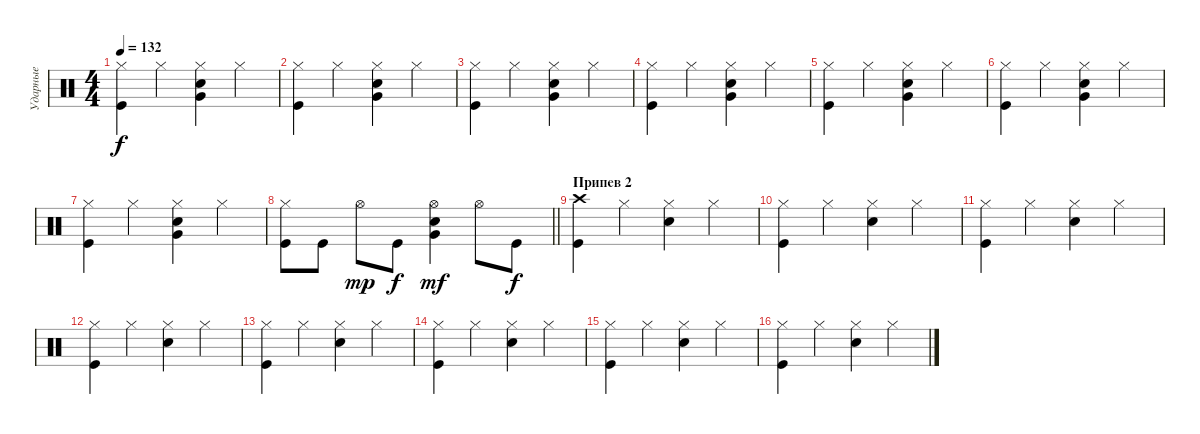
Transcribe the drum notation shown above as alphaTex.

\track ("Ударные" "Ударные") {instrument percussion}
\staff {score}
\articulation defaults
\ts (4 4)
\tempo 132
\clef neutral
\ks c
("Hi-Hat (closed)" "Kick (hit)").4{dy f} "Hi-Hat (closed)".4 ("Hi-Hat (closed)" "Snare (hit) 2" "Very Low Tom (hit)").4 "Hi-Hat (closed)".4 |
("Hi-Hat (closed)" "Kick (hit)").4 "Hi-Hat (closed)".4 ("Hi-Hat (closed)" "Snare (hit) 2" "Very Low Tom (hit)").4 "Hi-Hat (closed)".4 |
("Hi-Hat (closed)" "Kick (hit)").4 "Hi-Hat (closed)".4 ("Hi-Hat (closed)" "Snare (hit) 2" "Very Low Tom (hit)").4 "Hi-Hat (closed)".4 |
("Hi-Hat (closed)" "Kick (hit)").4 "Hi-Hat (closed)".4 ("Hi-Hat (closed)" "Snare (hit) 2" "Very Low Tom (hit)").4 "Hi-Hat (closed)".4 |
("Hi-Hat (closed)" "Kick (hit)").4 "Hi-Hat (closed)".4 ("Hi-Hat (closed)" "Snare (hit) 2" "Very Low Tom (hit)").4 "Hi-Hat (closed)".4 |
("Hi-Hat (closed)" "Kick (hit)").4 "Hi-Hat (closed)".4 ("Hi-Hat (closed)" "Snare (hit) 2" "Very Low Tom (hit)").4 "Hi-Hat (closed)".4 |
("Hi-Hat (closed)" "Kick (hit)").4 "Hi-Hat (closed)".4 ("Hi-Hat (closed)" "Snare (hit) 2" "Very Low Tom (hit)").4 "Hi-Hat (closed)".4 |
\barLineRight lightlight
("Hi-Hat (closed)" "Kick (hit)").8 "Kick (hit)".8 "Hi-Hat (open)".8{dy mp} "Kick (hit)".8{dy f} ("Hi-Hat (open)" "Snare (hit) 2" "Very Low Tom (hit)").4{dy mf} "Hi-Hat (open)".8 "Kick (hit)".8{dy f} |
\section ("" "Припев 2")
("Crash high (hit)" "Kick (hit)").4 "Hi-Hat (closed)".4 ("Hi-Hat (closed)" "Snare (hit) 2").4 "Hi-Hat (closed)".4 |
("Hi-Hat (closed)" "Kick (hit)").4 "Hi-Hat (closed)".4 ("Hi-Hat (closed)" "Snare (hit) 2").4 "Hi-Hat (closed)".4 |
("Hi-Hat (closed)" "Kick (hit)").4 "Hi-Hat (closed)".4 ("Hi-Hat (closed)" "Snare (hit) 2").4 "Hi-Hat (closed)".4 |
("Hi-Hat (closed)" "Kick (hit)").4 "Hi-Hat (closed)".4 ("Hi-Hat (closed)" "Snare (hit) 2").4 "Hi-Hat (closed)".4 |
("Hi-Hat (closed)" "Kick (hit)").4 "Hi-Hat (closed)".4 ("Hi-Hat (closed)" "Snare (hit) 2").4 "Hi-Hat (closed)".4 |
("Hi-Hat (closed)" "Kick (hit)").4 "Hi-Hat (closed)".4 ("Hi-Hat (closed)" "Snare (hit) 2").4 "Hi-Hat (closed)".4 |
("Hi-Hat (closed)" "Kick (hit)").4 "Hi-Hat (closed)".4 ("Hi-Hat (closed)" "Snare (hit) 2").4 "Hi-Hat (closed)".4 |
("Hi-Hat (closed)" "Kick (hit)").4 "Hi-Hat (closed)".4 ("Hi-Hat (closed)" "Snare (hit) 2").4 "Hi-Hat (closed)".4
